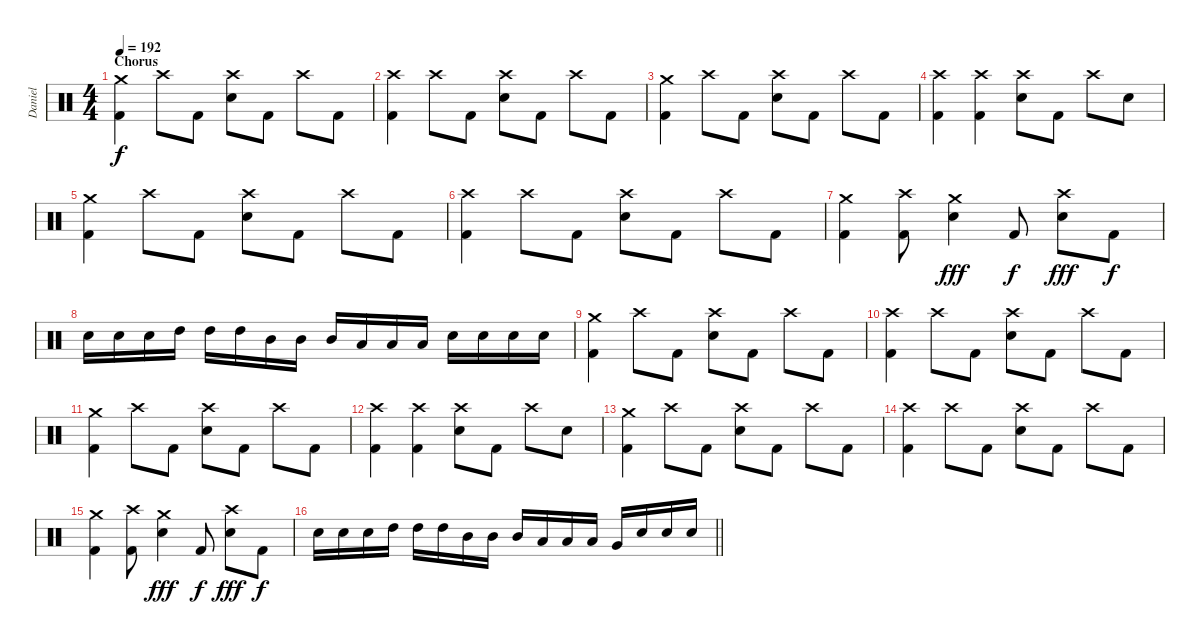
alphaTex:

\track ("Daniel" "Daniel") {instrument percussion}
\staff {score}
\articulation defaults
\ts (4 4)
\section ("" "Chorus")
\tempo 192
\clef neutral
\ks c
("Kick (hit) 2" "Crash medium (hit)").4{dy f} "Crash high (hit)".8 "Kick (hit) 2".8 ("Electric Snare (hit)" "Crash high (hit)").8 "Kick (hit) 2".8 "Crash high (hit)".8 "Kick (hit) 2".8 |
("Kick (hit) 2" "Crash high (hit)").4 "Crash high (hit)".8 "Kick (hit) 2".8 ("Electric Snare (hit)" "Crash high (hit)").8 "Kick (hit) 2".8 "Crash high (hit)".8 "Kick (hit) 2".8 |
("Kick (hit) 2" "Crash medium (hit)").4 "Crash high (hit)".8 "Kick (hit) 2".8 ("Electric Snare (hit)" "Crash high (hit)").8 "Kick (hit) 2".8 "Crash high (hit)".8 "Kick (hit) 2".8 |
("Kick (hit) 2" "Crash high (hit)").4 ("Kick (hit) 2" "Crash high (hit)").4 ("Electric Snare (hit)" "Crash high (hit)").8 "Kick (hit) 2".8 "Crash high (hit)".8 "Electric Snare (hit)".8 |
("Kick (hit) 2" "Crash medium (hit)").4 "Crash high (hit)".8 "Kick (hit) 2".8 ("Electric Snare (hit)" "Crash high (hit)").8 "Kick (hit) 2".8 "Crash high (hit)".8 "Kick (hit) 2".8 |
("Kick (hit) 2" "Crash high (hit)").4 "Crash high (hit)".8 "Kick (hit) 2".8 ("Electric Snare (hit)" "Crash high (hit)").8 "Kick (hit) 2".8 "Crash high (hit)".8 "Kick (hit) 2".8 |
("Kick (hit) 2" "Crash medium (hit)").4 ("Kick (hit) 2" "Crash high (hit)").8 ("Electric Snare (hit)" "Crash medium (hit)").4{dy fff} "Kick (hit) 2".8{dy f} ("Electric Snare (hit)" "Crash high (hit)").8{dy fff} "Kick (hit) 2".8{dy f} |
"Electric Snare (hit)".16 "Electric Snare (hit)".16 "Electric Snare (hit)".16 "High Tom (hit)".16 "High Tom (hit)".16 "High Tom (hit)".16 "Mid Tom (hit)".16 "Mid Tom (hit)".16 "Mid Tom (hit)".16 "Low Tom (hit)".16 "Low Tom (hit)".16 "Low Tom (hit)".16 "Electric Snare (hit)".16 "Electric Snare (hit)".16 "Electric Snare (hit)".16 "Electric Snare (hit)".16 |
("Kick (hit) 2" "Crash medium (hit)").4 "Crash high (hit)".8 "Kick (hit) 2".8 ("Electric Snare (hit)" "Crash high (hit)").8 "Kick (hit) 2".8 "Crash high (hit)".8 "Kick (hit) 2".8 |
("Kick (hit) 2" "Crash high (hit)").4 "Crash high (hit)".8 "Kick (hit) 2".8 ("Electric Snare (hit)" "Crash high (hit)").8 "Kick (hit) 2".8 "Crash high (hit)".8 "Kick (hit) 2".8 |
("Kick (hit) 2" "Crash medium (hit)").4 "Crash high (hit)".8 "Kick (hit) 2".8 ("Electric Snare (hit)" "Crash high (hit)").8 "Kick (hit) 2".8 "Crash high (hit)".8 "Kick (hit) 2".8 |
("Kick (hit) 2" "Crash high (hit)").4 ("Kick (hit) 2" "Crash high (hit)").4 ("Electric Snare (hit)" "Crash high (hit)").8 "Kick (hit) 2".8 "Crash high (hit)".8 "Electric Snare (hit)".8 |
("Kick (hit) 2" "Crash medium (hit)").4 "Crash high (hit)".8 "Kick (hit) 2".8 ("Electric Snare (hit)" "Crash high (hit)").8 "Kick (hit) 2".8 "Crash high (hit)".8 "Kick (hit) 2".8 |
("Kick (hit) 2" "Crash high (hit)").4 "Crash high (hit)".8 "Kick (hit) 2".8 ("Electric Snare (hit)" "Crash high (hit)").8 "Kick (hit) 2".8 "Crash high (hit)".8 "Kick (hit) 2".8 |
("Kick (hit) 2" "Crash medium (hit)").4 ("Kick (hit) 2" "Crash high (hit)").8 ("Electric Snare (hit)" "Crash medium (hit)").4{dy fff} "Kick (hit) 2".8{dy f} ("Electric Snare (hit)" "Crash high (hit)").8{dy fff} "Kick (hit) 2".8{dy f} |
\barLineRight lightlight "Electric Snare (hit)".16 "Electric Snare (hit)".16 "Electric Snare (hit)".16 "High Tom (hit)".16 "High Tom (hit)".16 "High Tom (hit)".16 "Mid Tom (hit)".16 "Mid Tom (hit)".16 "Mid Tom (hit)".16 "Low Tom (hit)".16 "Low Tom (hit)".16 "Low Tom (hit)".16 "Very Low Tom (hit)".16 "Electric Snare (hit)".16 "Electric Snare (hit)".16 "Electric Snare (hit)".16
